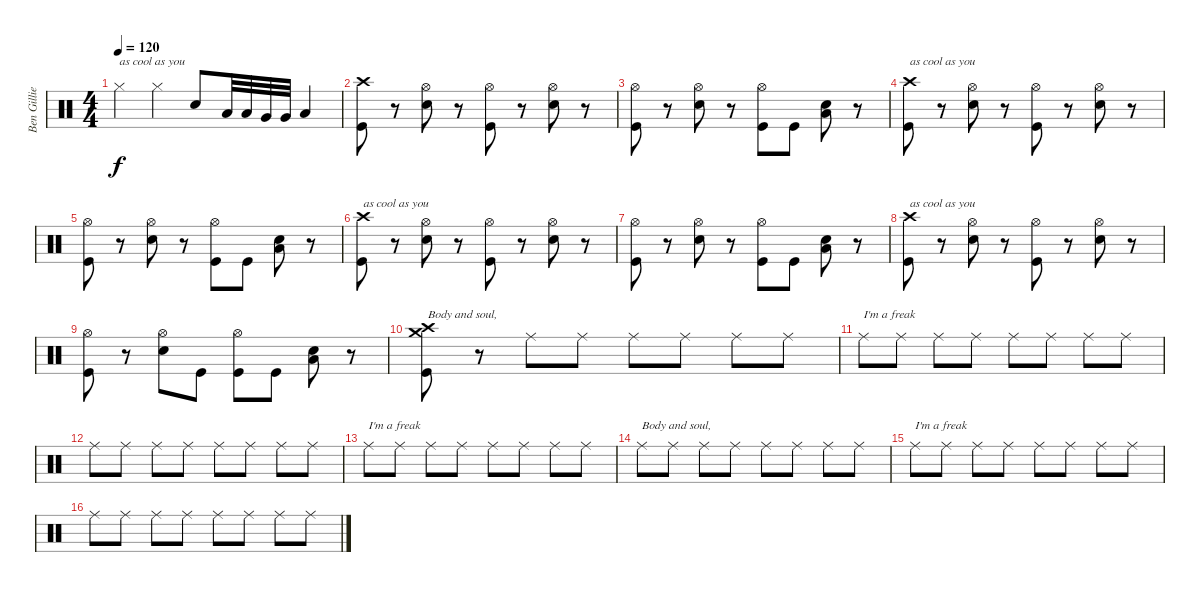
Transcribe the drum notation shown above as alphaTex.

\track ("Ben Gillies" "Ben Gillie") {instrument percussion}
\staff {score}
\articulation defaults
\ts (4 4)
\tempo 120
\clef neutral
\ks c "Hi-Hat (closed)".4{txt "as cool as you" dy f} "Hi-Hat (closed)".4 "Electric Snare (hit)".8 "Low Tom (hit)".32 "Low Tom (hit)".32 "Very Low Tom (hit)".32 "Very Low Tom (hit)".32 "Low Floor Tom (hit)".4
|
("Crash high (hit)" "Kick (hit)").8 r.8 ("Electric Snare (hit)" "Hi-Hat (open)").8 r.8 ("Hi-Hat (open)" "Kick (hit)").8 r.8 ("Electric Snare (hit)" "Hi-Hat (open)").8 r.8 |
("Hi-Hat (open)" "Kick (hit)").8 r.8 ("Electric Snare (hit)" "Hi-Hat (open)").8 r.8 ("Hi-Hat (open)" "Kick (hit)").8 "Kick (hit)".8 ("Electric Snare (hit)" "Low Floor Tom (hit)").8 r.8 |
("Crash high (hit)" "Kick (hit)").8{txt "as cool as you"} r.8 ("Electric Snare (hit)" "Hi-Hat (open)").8 r.8 ("Hi-Hat (open)" "Kick (hit)").8 r.8 ("Electric Snare (hit)" "Hi-Hat (open)").8 r.8 |
("Hi-Hat (open)" "Kick (hit)").8 r.8 ("Electric Snare (hit)" "Hi-Hat (open)").8 r.8 ("Hi-Hat (open)" "Kick (hit)").8 "Kick (hit)".8 ("Electric Snare (hit)" "Low Floor Tom (hit)").8 r.8 |
("Crash high (hit)" "Kick (hit)").8{txt "as cool as you"} r.8 ("Electric Snare (hit)" "Hi-Hat (open)").8 r.8 ("Hi-Hat (open)" "Kick (hit)").8 r.8 ("Electric Snare (hit)" "Hi-Hat (open)").8 r.8 |
("Hi-Hat (open)" "Kick (hit)").8 r.8 ("Electric Snare (hit)" "Hi-Hat (open)").8 r.8 ("Hi-Hat (open)" "Kick (hit)").8 "Kick (hit)".8 ("Electric Snare (hit)" "Low Floor Tom (hit)").8 r.8 |
("Crash high (hit)" "Kick (hit)").8{txt "as cool as you"} r.8 ("Electric Snare (hit)" "Hi-Hat (open)").8 r.8 ("Hi-Hat (open)" "Kick (hit)").8 r.8 ("Electric Snare (hit)" "Hi-Hat (open)").8 r.8 |
("Hi-Hat (open)" "Kick (hit)").8 r.8 ("Electric Snare (hit)" "Hi-Hat (open)").8 "Kick (hit)".8 ("Hi-Hat (open)" "Kick (hit)").8 "Kick (hit)".8 ("Electric Snare (hit)" "Low Floor Tom (hit)").8 r.8 |
("Crash medium (hit)" "Crash high (hit)" "Kick (hit)").8{txt "Body and soul,"} r.8 "Ride (middle)".8 "Ride (middle)".8 "Ride (middle)".8 "Ride (middle)".8 "Ride (middle)".8 "Ride (middle)".8 |
"Ride (middle)".8{txt "I'm a freak"} "Ride (middle)".8 "Ride (middle)".8 "Ride (middle)".8 "Ride (middle)".8 "Ride (middle)".8 "Ride (middle)".8 "Ride (middle)".8 |
"Ride (middle)".8 "Ride (middle)".8 "Ride (middle)".8 "Ride (middle)".8 "Ride (middle)".8 "Ride (middle)".8 "Ride (middle)".8 "Ride (middle)".8 |
"Ride (middle)".8{txt "I'm a freak"} "Ride (middle)".8 "Ride (middle)".8 "Ride (middle)".8 "Ride (middle)".8 "Ride (middle)".8 "Ride (middle)".8 "Ride (middle)".8 |
"Ride (middle)".8{txt "Body and soul,"} "Ride (middle)".8 "Ride (middle)".8 "Ride (middle)".8 "Ride (middle)".8 "Ride (middle)".8 "Ride (middle)".8 "Ride (middle)".8 |
"Ride (middle)".8{txt "I'm a freak"} "Ride (middle)".8 "Ride (middle)".8 "Ride (middle)".8 "Ride (middle)".8 "Ride (middle)".8 "Ride (middle)".8 "Ride (middle)".8 |
"Ride (middle)".8 "Ride (middle)".8 "Ride (middle)".8 "Ride (middle)".8 "Ride (middle)".8 "Ride (middle)".8 "Ride (middle)".8 "Ride (middle)".8
